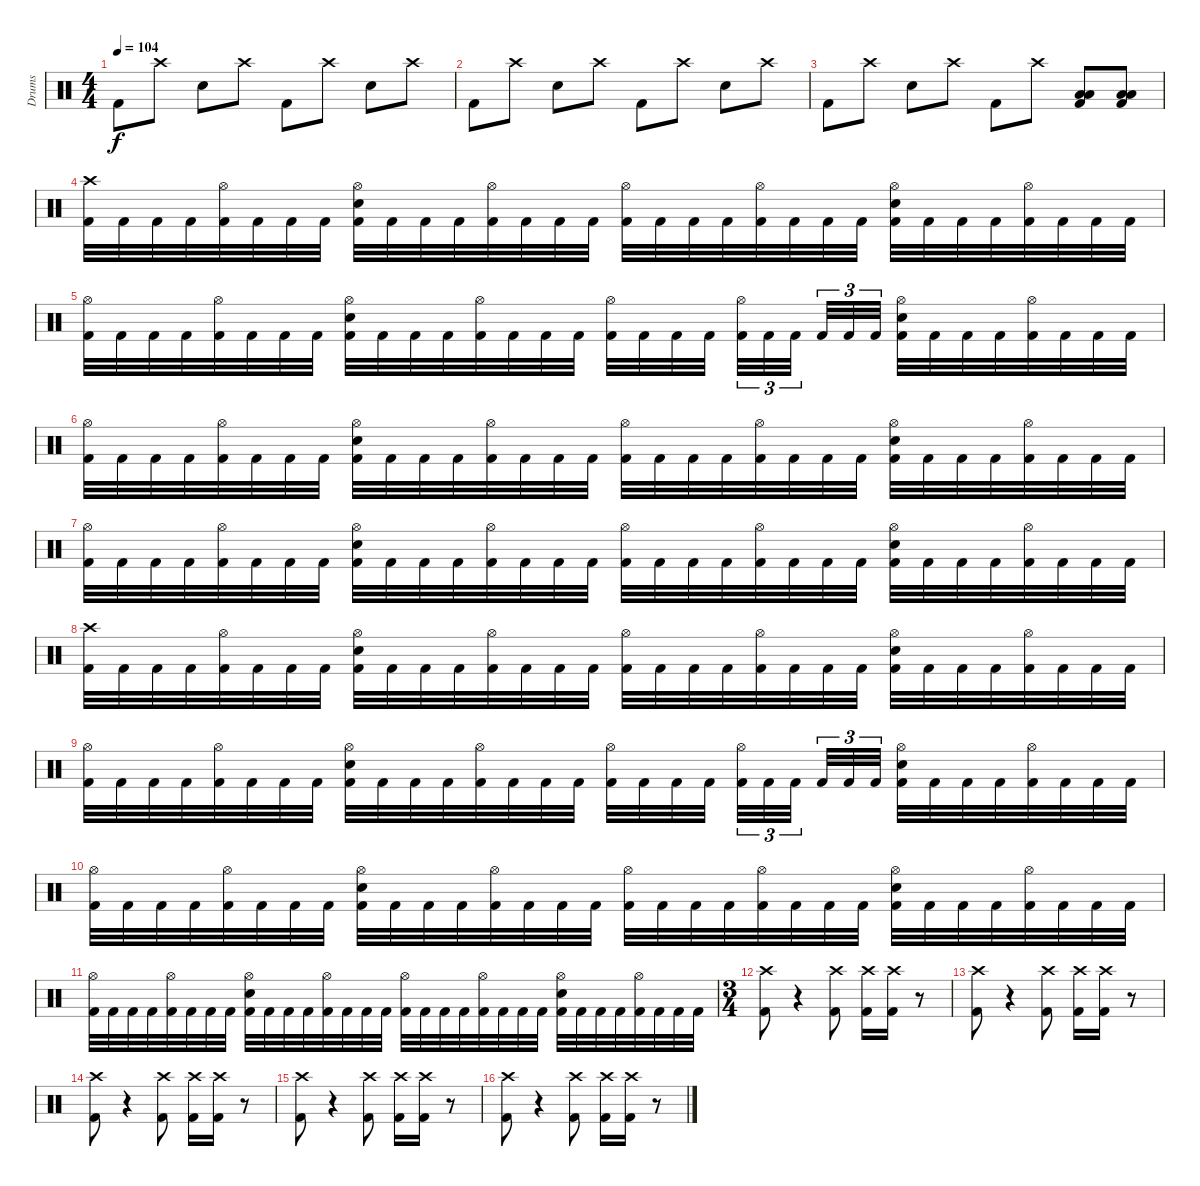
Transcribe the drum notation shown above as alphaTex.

\track ("Drums" "Drums") {instrument percussion}
\staff {score}
\articulation defaults
\ts (4 4)
\tempo 104
\clef neutral
\ks c "Kick (hit) 2".8{dy f} "Crash high (hit)".8 "Snare (hit) 2".8 "Crash high (hit)".8 "Kick (hit) 2".8 "Crash high (hit)".8 "Snare (hit) 2".8 "Crash high (hit)".8
|
"Kick (hit) 2".8 "Crash high (hit)".8 "Snare (hit) 2".8 "Crash high (hit)".8 "Kick (hit) 2".8 "Crash high (hit)".8 "Snare (hit) 2".8 "Crash high (hit)".8 |
"Kick (hit) 2".8 "Crash high (hit)".8 "Snare (hit) 2".8 "Crash high (hit)".8 "Kick (hit) 2".8 "Crash high (hit)".8 ("Low Tom (hit)" "Low Floor Tom (hit)" "Kick (hit) 2").8 ("Low Tom (hit)" "Low Floor Tom (hit)" "Kick (hit) 2").8 |
("Crash high (hit)" "Kick (hit) 2").32 "Kick (hit) 2".32 "Kick (hit) 2".32 "Kick (hit) 2".32 ("Hi-Hat (open)" "Kick (hit) 2").32 "Kick (hit) 2".32 "Kick (hit) 2".32 "Kick (hit) 2".32 ("Hi-Hat (open)" "Snare (hit) 2" "Kick (hit) 2").32 "Kick (hit) 2".32 "Kick (hit) 2".32 "Kick (hit) 2".32 ("Hi-Hat (open)" "Kick (hit) 2").32 "Kick (hit) 2".32 "Kick (hit) 2".32 "Kick (hit) 2".32 ("Hi-Hat (open)" "Kick (hit) 2").32 "Kick (hit) 2".32 "Kick (hit) 2".32 "Kick (hit) 2".32 ("Hi-Hat (open)" "Kick (hit) 2").32 "Kick (hit) 2".32 "Kick (hit) 2".32 "Kick (hit) 2".32 ("Hi-Hat (open)" "Snare (hit) 2" "Kick (hit) 2").32 "Kick (hit) 2".32 "Kick (hit) 2".32 "Kick (hit) 2".32 ("Hi-Hat (open)" "Kick (hit) 2").32 "Kick (hit) 2".32 "Kick (hit) 2".32 "Kick (hit) 2".32 |
("Hi-Hat (open)" "Kick (hit) 2").32 "Kick (hit) 2".32 "Kick (hit) 2".32 "Kick (hit) 2".32 ("Hi-Hat (open)" "Kick (hit) 2").32 "Kick (hit) 2".32 "Kick (hit) 2".32 "Kick (hit) 2".32 ("Hi-Hat (open)" "Snare (hit) 2" "Kick (hit) 2").32 "Kick (hit) 2".32 "Kick (hit) 2".32 "Kick (hit) 2".32 ("Hi-Hat (open)" "Kick (hit) 2").32 "Kick (hit) 2".32 "Kick (hit) 2".32 "Kick (hit) 2".32 ("Hi-Hat (open)" "Kick (hit) 2").32 "Kick (hit) 2".32 "Kick (hit) 2".32 "Kick (hit) 2".32{beam splitsecondary} ("Hi-Hat (open)" "Kick (hit) 2").32{tu (3 2)} "Kick (hit) 2".32{tu (3 2)} "Kick (hit) 2".32{tu (3 2) beam splitsecondary} "Kick (hit) 2".32{tu (3 2)} "Kick (hit) 2".32{tu (3 2)} "Kick (hit) 2".32{tu (3 2)} ("Hi-Hat (open)" "Snare (hit) 2" "Kick (hit) 2").32 "Kick (hit) 2".32 "Kick (hit) 2".32 "Kick (hit) 2".32 ("Hi-Hat (open)" "Kick (hit) 2").32 "Kick (hit) 2".32 "Kick (hit) 2".32 "Kick (hit) 2".32 |
("Hi-Hat (open)" "Kick (hit) 2").32 "Kick (hit) 2".32 "Kick (hit) 2".32 "Kick (hit) 2".32 ("Hi-Hat (open)" "Kick (hit) 2").32 "Kick (hit) 2".32 "Kick (hit) 2".32 "Kick (hit) 2".32 ("Hi-Hat (open)" "Snare (hit) 2" "Kick (hit) 2").32 "Kick (hit) 2".32 "Kick (hit) 2".32 "Kick (hit) 2".32 ("Hi-Hat (open)" "Kick (hit) 2").32 "Kick (hit) 2".32 "Kick (hit) 2".32 "Kick (hit) 2".32 ("Hi-Hat (open)" "Kick (hit) 2").32 "Kick (hit) 2".32 "Kick (hit) 2".32 "Kick (hit) 2".32 ("Hi-Hat (open)" "Kick (hit) 2").32 "Kick (hit) 2".32 "Kick (hit) 2".32 "Kick (hit) 2".32 ("Hi-Hat (open)" "Snare (hit) 2" "Kick (hit) 2").32 "Kick (hit) 2".32 "Kick (hit) 2".32 "Kick (hit) 2".32 ("Hi-Hat (open)" "Kick (hit) 2").32 "Kick (hit) 2".32 "Kick (hit) 2".32 "Kick (hit) 2".32 |
("Hi-Hat (open)" "Kick (hit) 2").32 "Kick (hit) 2".32 "Kick (hit) 2".32 "Kick (hit) 2".32 ("Hi-Hat (open)" "Kick (hit) 2").32 "Kick (hit) 2".32 "Kick (hit) 2".32 "Kick (hit) 2".32 ("Hi-Hat (open)" "Snare (hit) 2" "Kick (hit) 2").32 "Kick (hit) 2".32 "Kick (hit) 2".32 "Kick (hit) 2".32 ("Hi-Hat (open)" "Kick (hit) 2").32 "Kick (hit) 2".32 "Kick (hit) 2".32 "Kick (hit) 2".32 ("Hi-Hat (open)" "Kick (hit) 2").32 "Kick (hit) 2".32 "Kick (hit) 2".32 "Kick (hit) 2".32 ("Hi-Hat (open)" "Kick (hit) 2").32 "Kick (hit) 2".32 "Kick (hit) 2".32 "Kick (hit) 2".32 ("Hi-Hat (open)" "Snare (hit) 2" "Kick (hit) 2").32 "Kick (hit) 2".32 "Kick (hit) 2".32 "Kick (hit) 2".32 ("Hi-Hat (open)" "Kick (hit) 2").32 "Kick (hit) 2".32 "Kick (hit) 2".32 "Kick (hit) 2".32 |
("Crash high (hit)" "Kick (hit) 2").32 "Kick (hit) 2".32 "Kick (hit) 2".32 "Kick (hit) 2".32 ("Hi-Hat (open)" "Kick (hit) 2").32 "Kick (hit) 2".32 "Kick (hit) 2".32 "Kick (hit) 2".32 ("Hi-Hat (open)" "Snare (hit) 2" "Kick (hit) 2").32 "Kick (hit) 2".32 "Kick (hit) 2".32 "Kick (hit) 2".32 ("Hi-Hat (open)" "Kick (hit) 2").32 "Kick (hit) 2".32 "Kick (hit) 2".32 "Kick (hit) 2".32 ("Hi-Hat (open)" "Kick (hit) 2").32 "Kick (hit) 2".32 "Kick (hit) 2".32 "Kick (hit) 2".32 ("Hi-Hat (open)" "Kick (hit) 2").32 "Kick (hit) 2".32 "Kick (hit) 2".32 "Kick (hit) 2".32 ("Hi-Hat (open)" "Snare (hit) 2" "Kick (hit) 2").32 "Kick (hit) 2".32 "Kick (hit) 2".32 "Kick (hit) 2".32 ("Hi-Hat (open)" "Kick (hit) 2").32 "Kick (hit) 2".32 "Kick (hit) 2".32 "Kick (hit) 2".32 |
("Hi-Hat (open)" "Kick (hit) 2").32 "Kick (hit) 2".32 "Kick (hit) 2".32 "Kick (hit) 2".32 ("Hi-Hat (open)" "Kick (hit) 2").32 "Kick (hit) 2".32 "Kick (hit) 2".32 "Kick (hit) 2".32 ("Hi-Hat (open)" "Snare (hit) 2" "Kick (hit) 2").32 "Kick (hit) 2".32 "Kick (hit) 2".32 "Kick (hit) 2".32 ("Hi-Hat (open)" "Kick (hit) 2").32 "Kick (hit) 2".32 "Kick (hit) 2".32 "Kick (hit) 2".32 ("Hi-Hat (open)" "Kick (hit) 2").32 "Kick (hit) 2".32 "Kick (hit) 2".32 "Kick (hit) 2".32{beam splitsecondary} ("Hi-Hat (open)" "Kick (hit) 2").32{tu (3 2)} "Kick (hit) 2".32{tu (3 2)} "Kick (hit) 2".32{tu (3 2) beam splitsecondary} "Kick (hit) 2".32{tu (3 2)} "Kick (hit) 2".32{tu (3 2)} "Kick (hit) 2".32{tu (3 2)} ("Hi-Hat (open)" "Snare (hit) 2" "Kick (hit) 2").32 "Kick (hit) 2".32 "Kick (hit) 2".32 "Kick (hit) 2".32 ("Hi-Hat (open)" "Kick (hit) 2").32 "Kick (hit) 2".32 "Kick (hit) 2".32 "Kick (hit) 2".32 |
("Hi-Hat (open)" "Kick (hit) 2").32 "Kick (hit) 2".32 "Kick (hit) 2".32 "Kick (hit) 2".32 ("Hi-Hat (open)" "Kick (hit) 2").32 "Kick (hit) 2".32 "Kick (hit) 2".32 "Kick (hit) 2".32 ("Hi-Hat (open)" "Snare (hit) 2" "Kick (hit) 2").32 "Kick (hit) 2".32 "Kick (hit) 2".32 "Kick (hit) 2".32 ("Hi-Hat (open)" "Kick (hit) 2").32 "Kick (hit) 2".32 "Kick (hit) 2".32 "Kick (hit) 2".32 ("Hi-Hat (open)" "Kick (hit) 2").32 "Kick (hit) 2".32 "Kick (hit) 2".32 "Kick (hit) 2".32 ("Hi-Hat (open)" "Kick (hit) 2").32 "Kick (hit) 2".32 "Kick (hit) 2".32 "Kick (hit) 2".32 ("Hi-Hat (open)" "Snare (hit) 2" "Kick (hit) 2").32 "Kick (hit) 2".32 "Kick (hit) 2".32 "Kick (hit) 2".32 ("Hi-Hat (open)" "Kick (hit) 2").32 "Kick (hit) 2".32 "Kick (hit) 2".32 "Kick (hit) 2".32 |
("Hi-Hat (open)" "Kick (hit) 2").32 "Kick (hit) 2".32 "Kick (hit) 2".32 "Kick (hit) 2".32 ("Hi-Hat (open)" "Kick (hit) 2").32 "Kick (hit) 2".32 "Kick (hit) 2".32 "Kick (hit) 2".32 ("Hi-Hat (open)" "Snare (hit) 2" "Kick (hit) 2").32 "Kick (hit) 2".32 "Kick (hit) 2".32 "Kick (hit) 2".32 ("Hi-Hat (open)" "Kick (hit) 2").32 "Kick (hit) 2".32 "Kick (hit) 2".32 "Kick (hit) 2".32 ("Hi-Hat (open)" "Kick (hit) 2").32 "Kick (hit) 2".32 "Kick (hit) 2".32 "Kick (hit) 2".32 ("Hi-Hat (open)" "Kick (hit) 2").32 "Kick (hit) 2".32 "Kick (hit) 2".32 "Kick (hit) 2".32 ("Hi-Hat (open)" "Snare (hit) 2" "Kick (hit) 2").32 "Kick (hit) 2".32 "Kick (hit) 2".32 "Kick (hit) 2".32 ("Hi-Hat (open)" "Kick (hit) 2").32 "Kick (hit) 2".32 "Kick (hit) 2".32 "Kick (hit) 2".32 |
\ts (3 4)
("Crash high (hit)" "Kick (hit) 2").8 r.4 ("Crash high (hit)" "Kick (hit) 2").8 ("Crash high (hit)" "Kick (hit) 2").16 ("Crash high (hit)" "Kick (hit) 2").16 r.8 |
("Crash high (hit)" "Kick (hit) 2").8 r.4 ("Crash high (hit)" "Kick (hit) 2").8 ("Crash high (hit)" "Kick (hit) 2").16 ("Crash high (hit)" "Kick (hit) 2").16 r.8 |
("Crash high (hit)" "Kick (hit) 2").8 r.4 ("Crash high (hit)" "Kick (hit) 2").8 ("Crash high (hit)" "Kick (hit) 2").16 ("Crash high (hit)" "Kick (hit) 2").16 r.8 |
("Crash high (hit)" "Kick (hit) 2").8 r.4 ("Crash high (hit)" "Kick (hit) 2").8 ("Crash high (hit)" "Kick (hit) 2").16 ("Crash high (hit)" "Kick (hit) 2").16 r.8 |
("Crash high (hit)" "Kick (hit) 2").8 r.4 ("Crash high (hit)" "Kick (hit) 2").8 ("Crash high (hit)" "Kick (hit) 2").16 ("Crash high (hit)" "Kick (hit) 2").16 r.8
